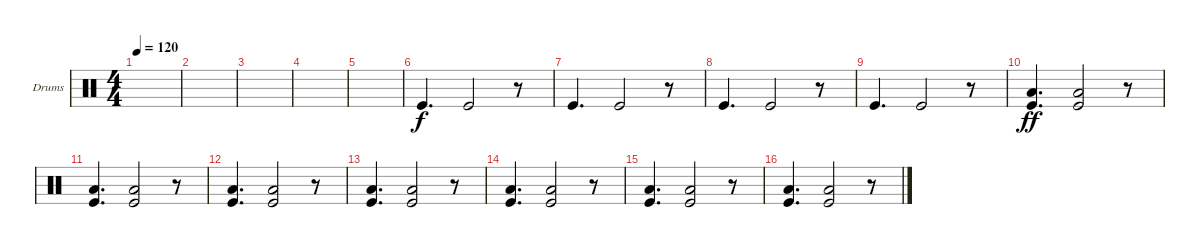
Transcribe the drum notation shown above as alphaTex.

\defaultSystemsLayout 4
\bracketExtendMode groupsimilarinstruments
\firstSystemTrackNameOrientation horizontal
\otherSystemsTrackNameOrientation horizontal
\track ("Drums" "Drums") {instrument percussion}
\staff {score}
\articulation defaults
\ts (4 4)
\tempo 120
\clef neutral
\scale
0.333333
\ks c
|
|
|
|
|
"Kick (hit)".4{d} "Kick (hit)".2 r.8 |
"Kick (hit)".4{d} "Kick (hit)".2 r.8 |
"Kick (hit)".4{d} "Kick (hit)".2 r.8 |
"Kick (hit)".4{d} "Kick (hit)".2 r.8 |
("Kick (hit)" "Low Tom (hit)").4{d dy ff} ("Kick (hit)" "Low Tom (hit)").2 r.8 |
("Kick (hit)" "Low Tom (hit)").4{d} ("Kick (hit)" "Low Tom (hit)").2 r.8 |
("Kick (hit)" "Low Tom (hit)").4{d} ("Kick (hit)" "Low Tom (hit)").2 r.8 |
("Kick (hit)" "Low Tom (hit)").4{d} ("Kick (hit)" "Low Tom (hit)").2 r.8 |
("Kick (hit)" "Low Tom (hit)").4{d} ("Kick (hit)" "Low Tom (hit)").2 r.8 |
("Kick (hit)" "Low Tom (hit)").4{d} ("Kick (hit)" "Low Tom (hit)").2 r.8 |
("Kick (hit)" "Low Tom (hit)").4{d} ("Kick (hit)" "Low Tom (hit)").2 r.8
